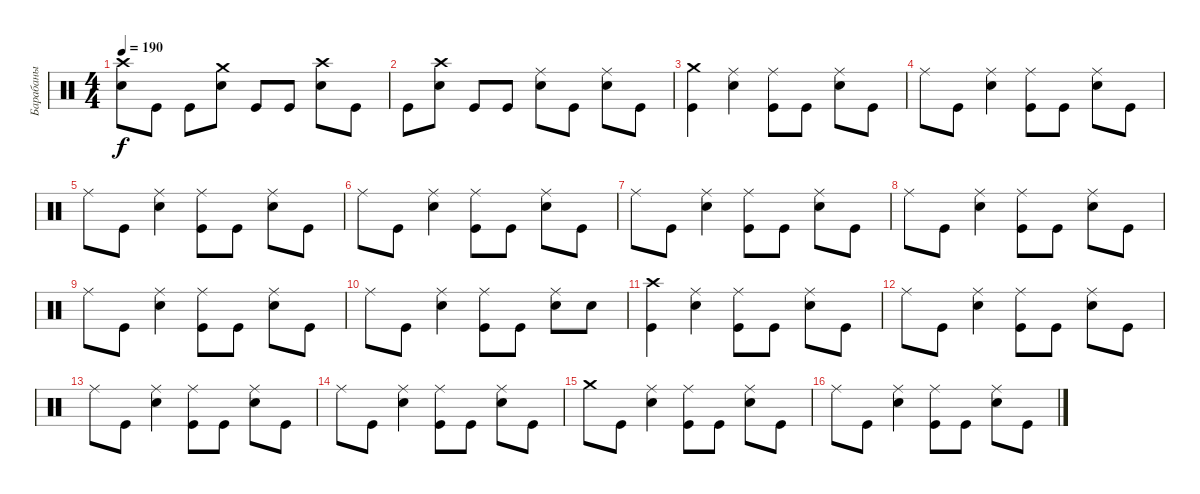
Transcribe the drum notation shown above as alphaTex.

\track ("Барабаны" "Барабаны") {instrument percussion}
\staff {score}
\articulation defaults
\ts (4 4)
\tempo 190
\clef neutral
\ks c
("Snare (hit) 2" "Crash high (hit)").8{dy f} "Kick (hit)".8 "Kick (hit)".8 ("Snare (hit) 2" "Crash medium (hit)").8 "Kick (hit)".8 "Kick (hit)".8 ("Snare (hit) 2" "Crash high (hit)").8 "Kick (hit)".8 |
"Kick (hit)".8 ("Snare (hit) 2" "Crash high (hit)").8 "Kick (hit)".8 "Kick (hit)".8 ("Snare (hit) 2" "Ride (middle)").8 "Kick (hit)".8 ("Snare (hit) 2" "Ride (middle)").8 "Kick (hit)".8 |
("Kick (hit)" "Crash medium (hit)").4 ("Snare (hit) 2" "Ride (middle)").4 ("Kick (hit)" "Ride (middle)").8 "Kick (hit)".8 ("Snare (hit) 2" "Ride (middle)").8 "Kick (hit)".8 |
"Ride (middle)".8 "Kick (hit)".8 ("Snare (hit) 2" "Ride (middle)").4 ("Kick (hit)" "Ride (middle)").8 "Kick (hit)".8 ("Snare (hit) 2" "Ride (middle)").8 "Kick (hit)".8 |
"Ride (middle)".8 "Kick (hit)".8 ("Snare (hit) 2" "Ride (middle)").4 ("Kick (hit)" "Ride (middle)").8 "Kick (hit)".8 ("Snare (hit) 2" "Ride (middle)").8 "Kick (hit)".8 |
"Ride (middle)".8 "Kick (hit)".8 ("Snare (hit) 2" "Ride (middle)").4 ("Kick (hit)" "Ride (middle)").8 "Kick (hit)".8 ("Snare (hit) 2" "Ride (middle)").8 "Kick (hit)".8 |
"Ride (middle)".8 "Kick (hit)".8 ("Snare (hit) 2" "Ride (middle)").4 ("Kick (hit)" "Ride (middle)").8 "Kick (hit)".8 ("Snare (hit) 2" "Ride (middle)").8 "Kick (hit)".8 |
"Ride (middle)".8 "Kick (hit)".8 ("Snare (hit) 2" "Ride (middle)").4 ("Kick (hit)" "Ride (middle)").8 "Kick (hit)".8 ("Snare (hit) 2" "Ride (middle)").8 "Kick (hit)".8 |
"Ride (middle)".8 "Kick (hit)".8 ("Snare (hit) 2" "Ride (middle)").4 ("Kick (hit)" "Ride (middle)").8 "Kick (hit)".8 ("Snare (hit) 2" "Ride (middle)").8 "Kick (hit)".8 |
"Ride (middle)".8 "Kick (hit)".8 ("Snare (hit) 2" "Ride (middle)").4 ("Kick (hit)" "Ride (middle)").8 "Kick (hit)".8 ("Snare (hit) 2" "Ride (middle)").8 "Snare (hit) 2".8 |
("Kick (hit)" "Crash high (hit)").4 ("Snare (hit) 2" "Ride (middle)").4 ("Kick (hit)" "Ride (middle)").8 "Kick (hit)".8 ("Snare (hit) 2" "Ride (middle)").8 "Kick (hit)".8 |
"Ride (middle)".8 "Kick (hit)".8 ("Snare (hit) 2" "Ride (middle)").4 ("Kick (hit)" "Ride (middle)").8 "Kick (hit)".8 ("Snare (hit) 2" "Ride (middle)").8 "Kick (hit)".8 |
"Ride (middle)".8 "Kick (hit)".8 ("Snare (hit) 2" "Ride (middle)").4 ("Kick (hit)" "Ride (middle)").8 "Kick (hit)".8 ("Snare (hit) 2" "Ride (middle)").8 "Kick (hit)".8 |
"Ride (middle)".8 "Kick (hit)".8 ("Snare (hit) 2" "Ride (middle)").4 ("Kick (hit)" "Ride (middle)").8 "Kick (hit)".8 ("Snare (hit) 2" "Ride (middle)").8 "Kick (hit)".8 |
"Crash medium (hit)".8 "Kick (hit)".8 ("Snare (hit) 2" "Ride (middle)").4 ("Kick (hit)" "Ride (middle)").8 "Kick (hit)".8 ("Snare (hit) 2" "Ride (middle)").8 "Kick (hit)".8 |
"Ride (middle)".8 "Kick (hit)".8 ("Snare (hit) 2" "Ride (middle)").4 ("Kick (hit)" "Ride (middle)").8 "Kick (hit)".8 ("Snare (hit) 2" "Ride (middle)").8 "Kick (hit)".8
